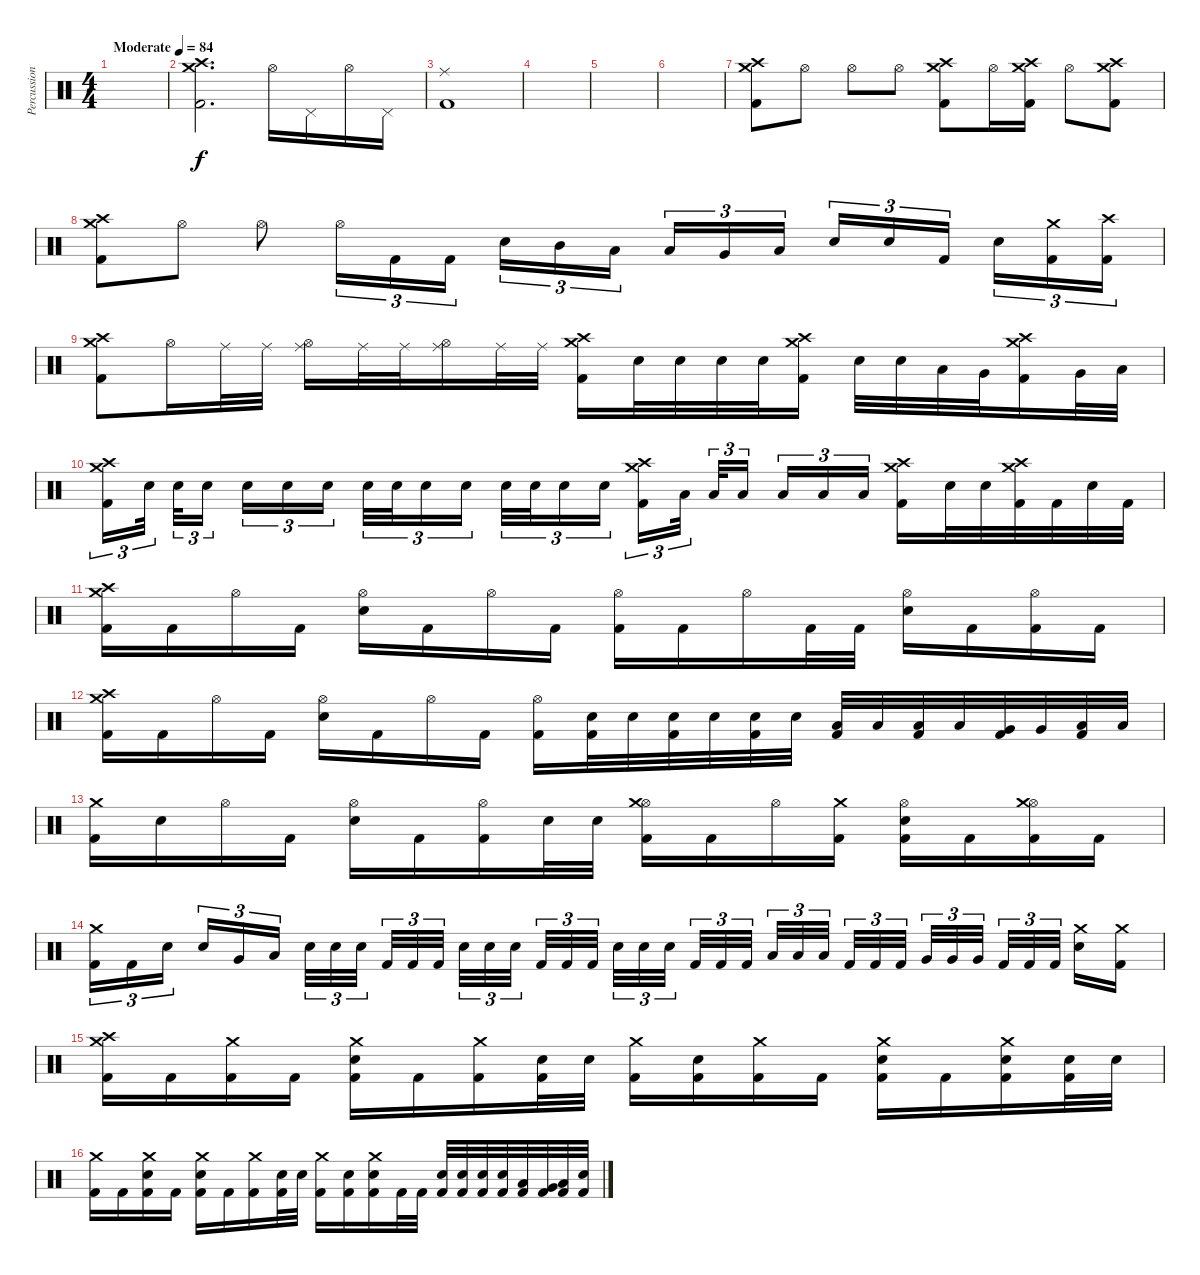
\track ("Percussion" "Percussion") {instrument percussion}
\staff {score}
\articulation defaults
\ts (4 4)
\tempo (84 "Moderate")
\clef neutral
\ks c
|
("Crash high (hit)" "Crash medium (hit)" "Kick (hit) 2").2{d} "Hi-Hat (open)".16 "Pedal Hi-Hat (hit)".16 "Hi-Hat (open)".16 "Pedal Hi-Hat (hit)".16 |
("Ride (middle)" "Kick (hit) 2").1 |
|
|
|
("Crash high (hit)" "Crash medium (hit)" "Kick (hit) 2").8 "Hi-Hat (open)".8 "Hi-Hat (open)".8 "Hi-Hat (open)".8 ("Crash high (hit)" "Crash medium (hit)" "Kick (hit) 2").8 "Hi-Hat (open)".16 ("Crash high (hit)" "Crash medium (hit)" "Kick (hit) 2").16 "Hi-Hat (open)".8 ("Crash high (hit)" "Crash medium (hit)" "Kick (hit) 2").8 |
("Crash high (hit)" "Crash medium (hit)" "Kick (hit) 2").8 "Hi-Hat (open)".8 "Hi-Hat (open)".8 "Hi-Hat (open)".16{tu (3 2)} "Kick (hit) 2".16{tu (3 2)} "Kick (hit) 2".16{tu (3 2)} "Electric Snare (hit)".16{tu (3 2)} "Mid Tom (hit)".16{tu (3 2)} "Low Tom (hit)".16{tu (3 2) beam splitsecondary} "Low Tom (hit)".16{tu (3 2)} "Very Low Tom (hit)".16{tu (3 2)} "Low Floor Tom (hit)".16{tu (3 2)} "Electric Snare (hit)".16{tu (3 2)} "Electric Snare (hit)".16{tu (3 2)} "Kick (hit) 2".16{tu (3 2) beam splitsecondary} "Electric Snare (hit)".16{tu (3 2)} ("Crash medium (hit)" "Kick (hit) 2").16{tu (3 2)} ("Crash high (hit)" "Kick (hit) 2").16{tu (3 2)} |
("Crash high (hit)" "Crash medium (hit)" "Kick (hit) 2").8 "Hi-Hat (open)".16 "Ride (middle)".32 "Ride (middle)".32 ("Hi-Hat (open)" "Ride (middle)").16 "Ride (middle)".32 "Ride (middle)".32 ("Hi-Hat (open)" "Ride (middle)").16 "Ride (middle)".32 "Ride (middle)".32 ("Crash high (hit)" "Crash medium (hit)" "Kick (hit) 2").16 "Electric Snare (hit)".32 "Electric Snare (hit)".32 "Electric Snare (hit)".32 "Electric Snare (hit)".32 ("Crash high (hit)" "Crash medium (hit)" "Kick (hit) 2").16 "Electric Snare (hit)".32 "Electric Snare (hit)".32 "Low Tom (hit)".32 "Very Low Tom (hit)".32 ("Crash high (hit)" "Crash medium (hit)" "Kick (hit) 2").16 "Very Low Tom (hit)".32 "Low Floor Tom (hit)".32 |
("Crash high (hit)" "Crash medium (hit)" "Kick (hit) 2").16{tu (3 2)} "Electric Snare (hit)".32{tu (3 2) beam splitsecondary} "Electric Snare (hit)".32{tu (3 2)} "Electric Snare (hit)".16{tu (3 2) beam splitsecondary} "Electric Snare (hit)".16{tu (3 2)} "Electric Snare (hit)".16{tu (3 2)} "Electric Snare (hit)".16{tu (3 2)} "Electric Snare (hit)".32{tu (3 2)} "Electric Snare (hit)".32{tu (3 2)} "Electric Snare (hit)".16{tu (3 2)} "Electric Snare (hit)".16{tu (3 2) beam splitsecondary} "Electric Snare (hit)".32{tu (3 2)} "Electric Snare (hit)".32{tu (3 2)} "Electric Snare (hit)".16{tu (3 2)} "Electric Snare (hit)".16{tu (3 2)} ("Crash high (hit)" "Crash medium (hit)" "Kick (hit) 2").16{tu (3 2)} "Low Tom (hit)".32{tu (3 2) beam splitsecondary} "Low Tom (hit)".32{tu (3 2)} "Low Tom (hit)".16{tu (3 2) beam splitsecondary} "Low Tom (hit)".16{tu (3 2)} "Low Tom (hit)".16{tu (3 2)} "Low Tom (hit)".16{tu (3 2)} ("Crash high (hit)" "Crash medium (hit)" "Kick (hit) 2").16 "Electric Snare (hit)".32 "Electric Snare (hit)".32 ("Crash high (hit)" "Crash medium (hit)" "Kick (hit) 2").32 "Kick (hit) 2".32 "Electric Snare (hit)".32 "Kick (hit) 2".32 |
("Crash high (hit)" "Crash medium (hit)" "Kick (hit) 2").16 "Kick (hit) 2".16 "Hi-Hat (open)".16 "Kick (hit) 2".16 ("Hi-Hat (open)" "Electric Snare (hit)").16 "Kick (hit) 2".16 "Hi-Hat (open)".16 "Kick (hit) 2".16 ("Hi-Hat (open)" "Kick (hit) 2").16 "Kick (hit) 2".16 "Hi-Hat (open)".16 "Kick (hit) 2".32 "Kick (hit) 2".32 ("Hi-Hat (open)" "Electric Snare (hit)").16 "Kick (hit) 2".16 ("Hi-Hat (open)" "Kick (hit) 2").16 "Kick (hit) 2".16 |
("Crash high (hit)" "Crash medium (hit)" "Kick (hit) 2").16 "Kick (hit) 2".16 "Hi-Hat (open)".16 "Kick (hit) 2".16 ("Hi-Hat (open)" "Electric Snare (hit)").16 "Kick (hit) 2".16 "Hi-Hat (open)".16 "Kick (hit) 2".16 ("Hi-Hat (open)" "Kick (hit) 2").16 ("Electric Snare (hit)" "Kick (hit) 2").32 "Electric Snare (hit)".32 ("Electric Snare (hit)" "Kick (hit) 2").32 "Electric Snare (hit)".32 ("Electric Snare (hit)" "Kick (hit) 2").32 "Electric Snare (hit)".32 ("Low Tom (hit)" "Kick (hit) 2").32 "Low Tom (hit)".32 ("Low Tom (hit)" "Kick (hit) 2").32 "Low Tom (hit)".32 ("Very Low Tom (hit)" "Kick (hit) 2").32 "Very Low Tom (hit)".32 ("Low Floor Tom (hit)" "Kick (hit) 2").32 "Low Floor Tom (hit)".32 |
("Crash medium (hit)" "Kick (hit) 2").16 "Electric Snare (hit)".16 "Hi-Hat (open)".16 "Kick (hit) 2".16 ("Hi-Hat (open)" "Electric Snare (hit)").16 "Kick (hit) 2".16 ("Hi-Hat (open)" "Kick (hit) 2").16 "Electric Snare (hit)".32 "Electric Snare (hit)".32 ("Hi-Hat (open)" "Crash medium (hit)" "Kick (hit) 2").16 "Kick (hit) 2".16 "Hi-Hat (open)".16 ("Crash medium (hit)" "Kick (hit) 2").16 ("Hi-Hat (open)" "Electric Snare (hit)" "Kick (hit) 2").16 "Kick (hit) 2".16 ("Hi-Hat (open)" "Crash medium (hit)" "Kick (hit) 2").16 "Kick (hit) 2".16 |
("Crash medium (hit)" "Kick (hit) 2").16{tu (3 2)} "Kick (hit) 2".16{tu (3 2)} "Electric Snare (hit)".16{tu (3 2) beam splitsecondary} "Electric Snare (hit)".16{tu (3 2)} "Very Low Tom (hit)".16{tu (3 2)} "Low Floor Tom (hit)".16{tu (3 2)} "Electric Snare (hit)".32{tu (3 2)} "Electric Snare (hit)".32{tu (3 2)} "Electric Snare (hit)".32{tu (3 2) beam splitsecondary} "Kick (hit) 2".32{tu (3 2)} "Kick (hit) 2".32{tu (3 2)} "Kick (hit) 2".32{tu (3 2) beam splitsecondary} "Electric Snare (hit)".32{tu (3 2)} "Electric Snare (hit)".32{tu (3 2)} "Electric Snare (hit)".32{tu (3 2) beam splitsecondary} "Kick (hit) 2".32{tu (3 2)} "Kick (hit) 2".32{tu (3 2)} "Kick (hit) 2".32{tu (3 2)} "Electric Snare (hit)".32{tu (3 2)} "Electric Snare (hit)".32{tu (3 2)} "Electric Snare (hit)".32{tu (3 2) beam splitsecondary} "Kick (hit) 2".32{tu (3 2)} "Kick (hit) 2".32{tu (3 2)} "Kick (hit) 2".32{tu (3 2) beam splitsecondary} "Low Tom (hit)".32{tu (3 2)} "Low Tom (hit)".32{tu (3 2)} "Low Tom (hit)".32{tu (3 2) beam splitsecondary} "Kick (hit) 2".32{tu (3 2)} "Kick (hit) 2".32{tu (3 2)} "Kick (hit) 2".32{tu (3 2)} "Very Low Tom (hit)".32{tu (3 2)} "Very Low Tom (hit)".32{tu (3 2)} "Very Low Tom (hit)".32{tu (3 2) beam splitsecondary} "Kick (hit) 2".32{tu (3 2)} "Kick (hit) 2".32{tu (3 2)} "Kick (hit) 2".32{tu (3 2) beam splitsecondary} ("Crash medium (hit)" "Electric Snare (hit)").16 ("Crash medium (hit)" "Kick (hit) 2").16 |
("Crash high (hit)" "Crash medium (hit)" "Kick (hit) 2").16 "Kick (hit) 2".16 ("Crash medium (hit)" "Kick (hit) 2").16 "Kick (hit) 2".16 ("Crash medium (hit)" "Electric Snare (hit)" "Kick (hit) 2").16 "Kick (hit) 2".16 ("Crash medium (hit)" "Kick (hit) 2").16 ("Electric Snare (hit)" "Kick (hit) 2").32 "Electric Snare (hit)".32 ("Crash medium (hit)" "Kick (hit) 2").16 ("Electric Snare (hit)" "Kick (hit) 2").16 ("Crash medium (hit)" "Kick (hit) 2").16 "Kick (hit) 2".16 ("Crash medium (hit)" "Electric Snare (hit)" "Kick (hit) 2").16 "Kick (hit) 2".16 ("Crash medium (hit)" "Electric Snare (hit)" "Kick (hit) 2").16 ("Electric Snare (hit)" "Kick (hit) 2").32 "Electric Snare (hit)".32 |
("Crash medium (hit)" "Kick (hit) 2").16 "Kick (hit) 2".16 ("Crash medium (hit)" "Electric Snare (hit)" "Kick (hit) 2").16 "Kick (hit) 2".16 ("Crash medium (hit)" "Electric Snare (hit)" "Kick (hit) 2").16 "Kick (hit) 2".16 ("Crash medium (hit)" "Kick (hit) 2").16 ("Electric Snare (hit)" "Kick (hit) 2").32 "Electric Snare (hit)".32 ("Crash medium (hit)" "Kick (hit) 2").16 ("Electric Snare (hit)" "Kick (hit) 2").16 ("Crash medium (hit)" "Electric Snare (hit)" "Kick (hit) 2").16 "Kick (hit) 2".32 "Kick (hit) 2".32 ("Electric Snare (hit)" "Kick (hit) 2").32 ("Electric Snare (hit)" "Kick (hit) 2").32 ("Electric Snare (hit)" "Kick (hit) 2").32 ("Electric Snare (hit)" "Kick (hit) 2").32 ("Low Tom (hit)" "Kick (hit) 2").32 ("Very Low Tom (hit)" "Kick (hit) 2").32 ("Low Floor Tom (hit)" "Kick (hit) 2").32 ("Electric Snare (hit)" "Kick (hit) 2").32
